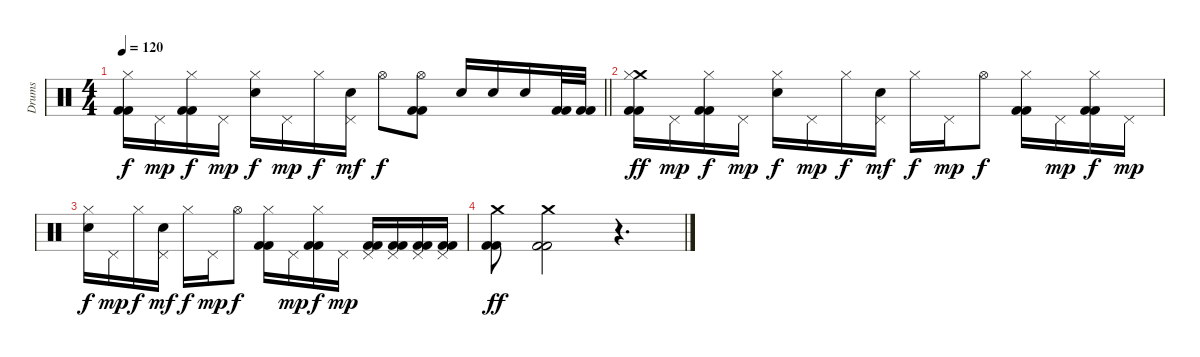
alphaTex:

\track ("Drums" "Drums") {instrument percussion}
\staff {score}
\articulation defaults
\ts (4 4)
\tempo 120
\clef neutral
\barLineRight lightlight
\ks c
("Hi-Hat (closed)" "Kick (hit) 2" "Kick (hit) 2").16{dy f} "Pedal Hi-Hat (hit)".16{dy mp} ("Hi-Hat (closed)" "Kick (hit) 2" "Kick (hit) 2").16{dy f} "Pedal Hi-Hat (hit)".16{dy mp} ("Hi-Hat (closed)" "Electric Snare (hit)").16{dy f} "Pedal Hi-Hat (hit)".16{dy mp} "Hi-Hat (closed)".16{dy f} ("Pedal Hi-Hat (hit)" "Electric Snare (hit)").16{dy mf} "Hi-Hat (open)".8{dy f} ("Hi-Hat (open)" "Kick (hit) 2" "Kick (hit) 2").8 "Electric Snare (hit)".16 "Electric Snare (hit)".16 "Electric Snare (hit)".16 ("Kick (hit) 2" "Kick (hit) 2").32 ("Kick (hit) 2" "Kick (hit) 2").32 |
("Crash medium (hit)" "Hi-Hat (closed)" "Kick (hit) 2" "Kick (hit) 2").16{dy ff} "Pedal Hi-Hat (hit)".16{dy mp} ("Hi-Hat (closed)" "Kick (hit) 2" "Kick (hit) 2").16{dy f} "Pedal Hi-Hat (hit)".16{dy mp} ("Hi-Hat (closed)" "Electric Snare (hit)").16{dy f} "Pedal Hi-Hat (hit)".16{dy mp} "Hi-Hat (closed)".16{dy f} ("Pedal Hi-Hat (hit)" "Electric Snare (hit)").16{dy mf} "Hi-Hat (closed)".16{dy f} "Pedal Hi-Hat (hit)".16{dy mp} "Hi-Hat (open)".8{dy f} ("Hi-Hat (closed)" "Kick (hit) 2" "Kick (hit) 2").16 "Pedal Hi-Hat (hit)".16{dy mp} ("Hi-Hat (closed)" "Kick (hit) 2" "Kick (hit) 2").16{dy f} "Pedal Hi-Hat (hit)".16{dy mp} |
("Hi-Hat (closed)" "Electric Snare (hit)").16{dy f} "Pedal Hi-Hat (hit)".16{dy mp} "Hi-Hat (closed)".16{dy f} ("Pedal Hi-Hat (hit)" "Electric Snare (hit)").16{dy mf} "Hi-Hat (closed)".16{dy f} "Pedal Hi-Hat (hit)".16{dy mp} "Hi-Hat (open)".8{dy f} ("Hi-Hat (closed)" "Kick (hit) 2" "Kick (hit) 2").16 "Pedal Hi-Hat (hit)".16{dy mp} ("Hi-Hat (closed)" "Kick (hit) 2" "Kick (hit) 2").16{dy f} "Pedal Hi-Hat (hit)".16{dy mp} ("Pedal Hi-Hat (hit)" "Kick (hit) 2" "Kick (hit) 2").16 ("Pedal Hi-Hat (hit)" "Kick (hit) 2" "Kick (hit) 2").16 ("Pedal Hi-Hat (hit)" "Kick (hit) 2" "Kick (hit) 2").16 ("Pedal Hi-Hat (hit)" "Kick (hit) 2" "Kick (hit) 2").16 |
("Crash medium (hit)" "Kick (hit) 2" "Kick (hit) 2").8{dy ff} ("Crash medium (hit)" "Kick (hit) 2" "Kick (hit) 2").2 r.4{d}
